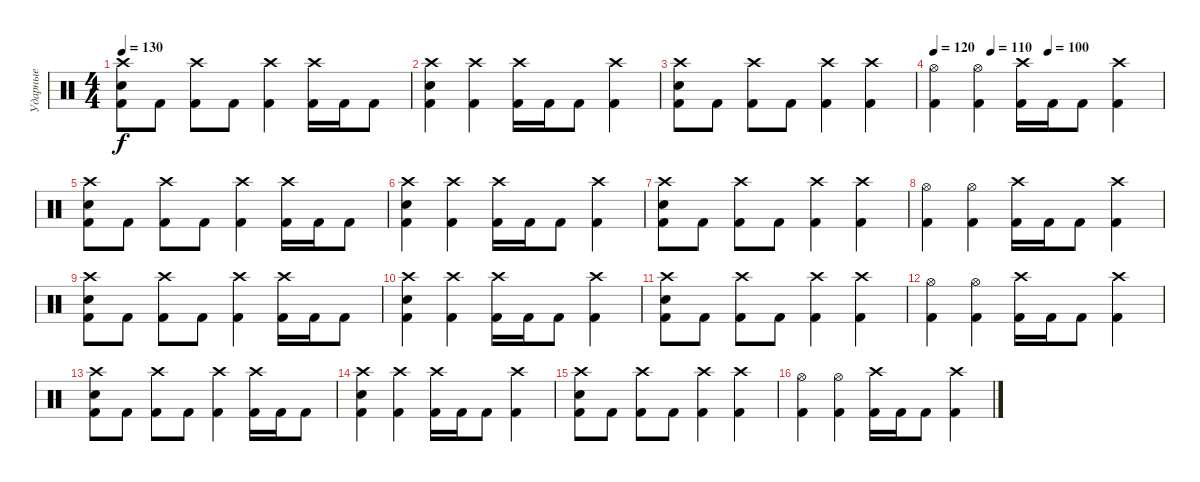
\track ("Ударные" "Ударные") {instrument percussion}
\staff {score}
\articulation defaults
\ts (4 4)
\tempo 130
\clef neutral
\ks c
("Crash high (hit)" "Snare (hit) 2" "Kick (hit) 2").8{dy f} "Kick (hit) 2".8 ("Crash high (hit)" "Kick (hit) 2").8 "Kick (hit) 2".8 ("Crash high (hit)" "Kick (hit) 2").4 ("Crash high (hit)" "Kick (hit) 2").16 "Kick (hit) 2".16 "Kick (hit) 2".8 |
("Crash high (hit)" "Snare (hit) 2" "Kick (hit) 2").4 ("Crash high (hit)" "Kick (hit) 2").4 ("Crash high (hit)" "Kick (hit) 2").16 "Kick (hit) 2".16 "Kick (hit) 2".8 ("Crash high (hit)" "Kick (hit) 2").4 |
("Crash high (hit)" "Snare (hit) 2" "Kick (hit) 2").8 "Kick (hit) 2".8 ("Crash high (hit)" "Kick (hit) 2").8 "Kick (hit) 2".8 ("Crash high (hit)" "Kick (hit) 2").4 ("Crash high (hit)" "Kick (hit) 2").4 |
\tempo 120
\tempo (110 0.25)
\tempo (100 0.5)
("Hi-Hat (open)" "Kick (hit) 2").4 ("Hi-Hat (open)" "Kick (hit) 2").4 ("Crash high (hit)" "Kick (hit) 2").16 "Kick (hit) 2".16 "Kick (hit) 2".8 ("Crash high (hit)" "Kick (hit) 2").4 |
("Crash high (hit)" "Snare (hit) 2" "Kick (hit) 2").8 "Kick (hit) 2".8 ("Crash high (hit)" "Kick (hit) 2").8 "Kick (hit) 2".8 ("Crash high (hit)" "Kick (hit) 2").4 ("Crash high (hit)" "Kick (hit) 2").16 "Kick (hit) 2".16 "Kick (hit) 2".8 |
("Crash high (hit)" "Snare (hit) 2" "Kick (hit) 2").4 ("Crash high (hit)" "Kick (hit) 2").4 ("Crash high (hit)" "Kick (hit) 2").16 "Kick (hit) 2".16 "Kick (hit) 2".8 ("Crash high (hit)" "Kick (hit) 2").4 |
("Crash high (hit)" "Snare (hit) 2" "Kick (hit) 2").8 "Kick (hit) 2".8 ("Crash high (hit)" "Kick (hit) 2").8 "Kick (hit) 2".8 ("Crash high (hit)" "Kick (hit) 2").4 ("Crash high (hit)" "Kick (hit) 2").4 |
("Hi-Hat (open)" "Kick (hit) 2").4 ("Hi-Hat (open)" "Kick (hit) 2").4 ("Crash high (hit)" "Kick (hit) 2").16 "Kick (hit) 2".16 "Kick (hit) 2".8 ("Crash high (hit)" "Kick (hit) 2").4 |
("Crash high (hit)" "Snare (hit) 2" "Kick (hit) 2").8 "Kick (hit) 2".8 ("Crash high (hit)" "Kick (hit) 2").8 "Kick (hit) 2".8 ("Crash high (hit)" "Kick (hit) 2").4 ("Crash high (hit)" "Kick (hit) 2").16 "Kick (hit) 2".16 "Kick (hit) 2".8 |
("Crash high (hit)" "Snare (hit) 2" "Kick (hit) 2").4 ("Crash high (hit)" "Kick (hit) 2").4 ("Crash high (hit)" "Kick (hit) 2").16 "Kick (hit) 2".16 "Kick (hit) 2".8 ("Crash high (hit)" "Kick (hit) 2").4 |
("Crash high (hit)" "Snare (hit) 2" "Kick (hit) 2").8 "Kick (hit) 2".8 ("Crash high (hit)" "Kick (hit) 2").8 "Kick (hit) 2".8 ("Crash high (hit)" "Kick (hit) 2").4 ("Crash high (hit)" "Kick (hit) 2").4 |
("Hi-Hat (open)" "Kick (hit) 2").4 ("Hi-Hat (open)" "Kick (hit) 2").4 ("Crash high (hit)" "Kick (hit) 2").16 "Kick (hit) 2".16 "Kick (hit) 2".8 ("Crash high (hit)" "Kick (hit) 2").4 |
("Crash high (hit)" "Snare (hit) 2" "Kick (hit) 2").8 "Kick (hit) 2".8 ("Crash high (hit)" "Kick (hit) 2").8 "Kick (hit) 2".8 ("Crash high (hit)" "Kick (hit) 2").4 ("Crash high (hit)" "Kick (hit) 2").16 "Kick (hit) 2".16 "Kick (hit) 2".8 |
("Crash high (hit)" "Snare (hit) 2" "Kick (hit) 2").4 ("Crash high (hit)" "Kick (hit) 2").4 ("Crash high (hit)" "Kick (hit) 2").16 "Kick (hit) 2".16 "Kick (hit) 2".8 ("Crash high (hit)" "Kick (hit) 2").4 |
("Crash high (hit)" "Snare (hit) 2" "Kick (hit) 2").8 "Kick (hit) 2".8 ("Crash high (hit)" "Kick (hit) 2").8 "Kick (hit) 2".8 ("Crash high (hit)" "Kick (hit) 2").4 ("Crash high (hit)" "Kick (hit) 2").4 |
("Hi-Hat (open)" "Kick (hit) 2").4 ("Hi-Hat (open)" "Kick (hit) 2").4 ("Crash high (hit)" "Kick (hit) 2").16 "Kick (hit) 2".16 "Kick (hit) 2".8 ("Crash high (hit)" "Kick (hit) 2").4
